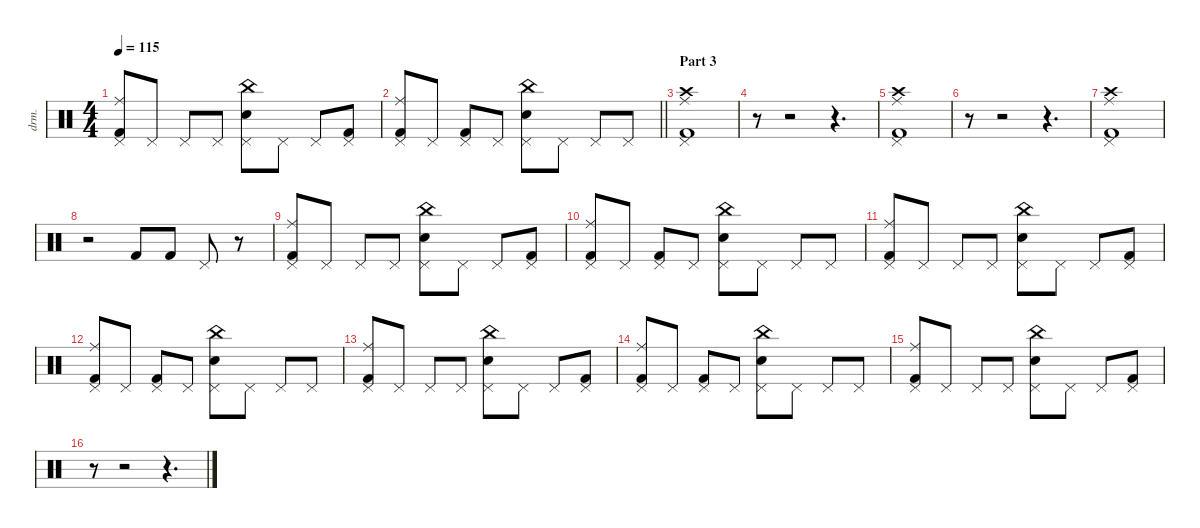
\defaultSystemsLayout 4
\hideDynamics
\bracketExtendMode nobrackets
\otherSystemsTrackNameOrientation horizontal
\track ("Drums" "drm.") {instrument percussion}
\staff {score}
\articulation defaults
\ts (4 4)
\tempo 115
\clef neutral
\ks c
("Pedal Hi-Hat (hit)" "Ride (middle)" "Kick (hit) 2").8{dy f} "Pedal Hi-Hat (hit)".8 "Pedal Hi-Hat (hit)".8 "Pedal Hi-Hat (hit)".8 ("Pedal Hi-Hat (hit)" "Snare (hit) 2" "China (hit)").8 "Pedal Hi-Hat (hit)".8 "Pedal Hi-Hat (hit)".8 ("Pedal Hi-Hat (hit)" "Kick (hit) 2").8 |
\barLineRight lightlight
("Pedal Hi-Hat (hit)" "Ride (middle)" "Kick (hit) 2").8 "Pedal Hi-Hat (hit)".8 ("Pedal Hi-Hat (hit)" "Kick (hit) 2").8 "Pedal Hi-Hat (hit)".8 ("Pedal Hi-Hat (hit)" "Snare (hit) 2" "China (hit)").8 "Pedal Hi-Hat (hit)".8 "Pedal Hi-Hat (hit)".8 "Pedal Hi-Hat (hit)".8 |
\section ("" "Part 3")
("Pedal Hi-Hat (hit)" "Ride (middle)" "Kick (hit) 2" "Crash high (hit)").1 |
r.8 r.2 r.4{d} |
("Pedal Hi-Hat (hit)" "Ride (middle)" "Kick (hit) 2" "Crash high (hit)").1 |
r.8 r.2 r.4{d} |
("Pedal Hi-Hat (hit)" "Ride (middle)" "Kick (hit) 2" "Crash high (hit)").1 |
r.2 "Kick (hit) 2".8 "Kick (hit) 2".8 "Pedal Hi-Hat (hit)".8 r.8 |
("Pedal Hi-Hat (hit)" "Ride (middle)" "Kick (hit) 2").8 "Pedal Hi-Hat (hit)".8 "Pedal Hi-Hat (hit)".8 "Pedal Hi-Hat (hit)".8 ("Pedal Hi-Hat (hit)" "Snare (hit) 2" "China (hit)").8 "Pedal Hi-Hat (hit)".8 "Pedal Hi-Hat (hit)".8 ("Pedal Hi-Hat (hit)" "Kick (hit) 2").8 |
("Pedal Hi-Hat (hit)" "Ride (middle)" "Kick (hit) 2").8 "Pedal Hi-Hat (hit)".8 ("Pedal Hi-Hat (hit)" "Kick (hit) 2").8 "Pedal Hi-Hat (hit)".8 ("Pedal Hi-Hat (hit)" "Snare (hit) 2" "China (hit)").8 "Pedal Hi-Hat (hit)".8 "Pedal Hi-Hat (hit)".8 "Pedal Hi-Hat (hit)".8 |
("Pedal Hi-Hat (hit)" "Ride (middle)" "Kick (hit) 2").8 "Pedal Hi-Hat (hit)".8 "Pedal Hi-Hat (hit)".8 "Pedal Hi-Hat (hit)".8 ("Pedal Hi-Hat (hit)" "Snare (hit) 2" "China (hit)").8 "Pedal Hi-Hat (hit)".8 "Pedal Hi-Hat (hit)".8 ("Pedal Hi-Hat (hit)" "Kick (hit) 2").8 |
("Pedal Hi-Hat (hit)" "Ride (middle)" "Kick (hit) 2").8 "Pedal Hi-Hat (hit)".8 ("Pedal Hi-Hat (hit)" "Kick (hit) 2").8 "Pedal Hi-Hat (hit)".8 ("Pedal Hi-Hat (hit)" "Snare (hit) 2" "China (hit)").8 "Pedal Hi-Hat (hit)".8 "Pedal Hi-Hat (hit)".8 "Pedal Hi-Hat (hit)".8 |
("Pedal Hi-Hat (hit)" "Ride (middle)" "Kick (hit) 2").8 "Pedal Hi-Hat (hit)".8 "Pedal Hi-Hat (hit)".8 "Pedal Hi-Hat (hit)".8 ("Pedal Hi-Hat (hit)" "Snare (hit) 2" "China (hit)").8 "Pedal Hi-Hat (hit)".8 "Pedal Hi-Hat (hit)".8 ("Pedal Hi-Hat (hit)" "Kick (hit) 2").8 |
("Pedal Hi-Hat (hit)" "Ride (middle)" "Kick (hit) 2").8 "Pedal Hi-Hat (hit)".8 ("Pedal Hi-Hat (hit)" "Kick (hit) 2").8 "Pedal Hi-Hat (hit)".8 ("Pedal Hi-Hat (hit)" "Snare (hit) 2" "China (hit)").8 "Pedal Hi-Hat (hit)".8 "Pedal Hi-Hat (hit)".8 "Pedal Hi-Hat (hit)".8 |
("Pedal Hi-Hat (hit)" "Ride (middle)" "Kick (hit) 2").8 "Pedal Hi-Hat (hit)".8 "Pedal Hi-Hat (hit)".8 "Pedal Hi-Hat (hit)".8 ("Pedal Hi-Hat (hit)" "Snare (hit) 2" "China (hit)").8 "Pedal Hi-Hat (hit)".8 "Pedal Hi-Hat (hit)".8 ("Pedal Hi-Hat (hit)" "Kick (hit) 2").8 |
r.8 r.2 r.4{d}
